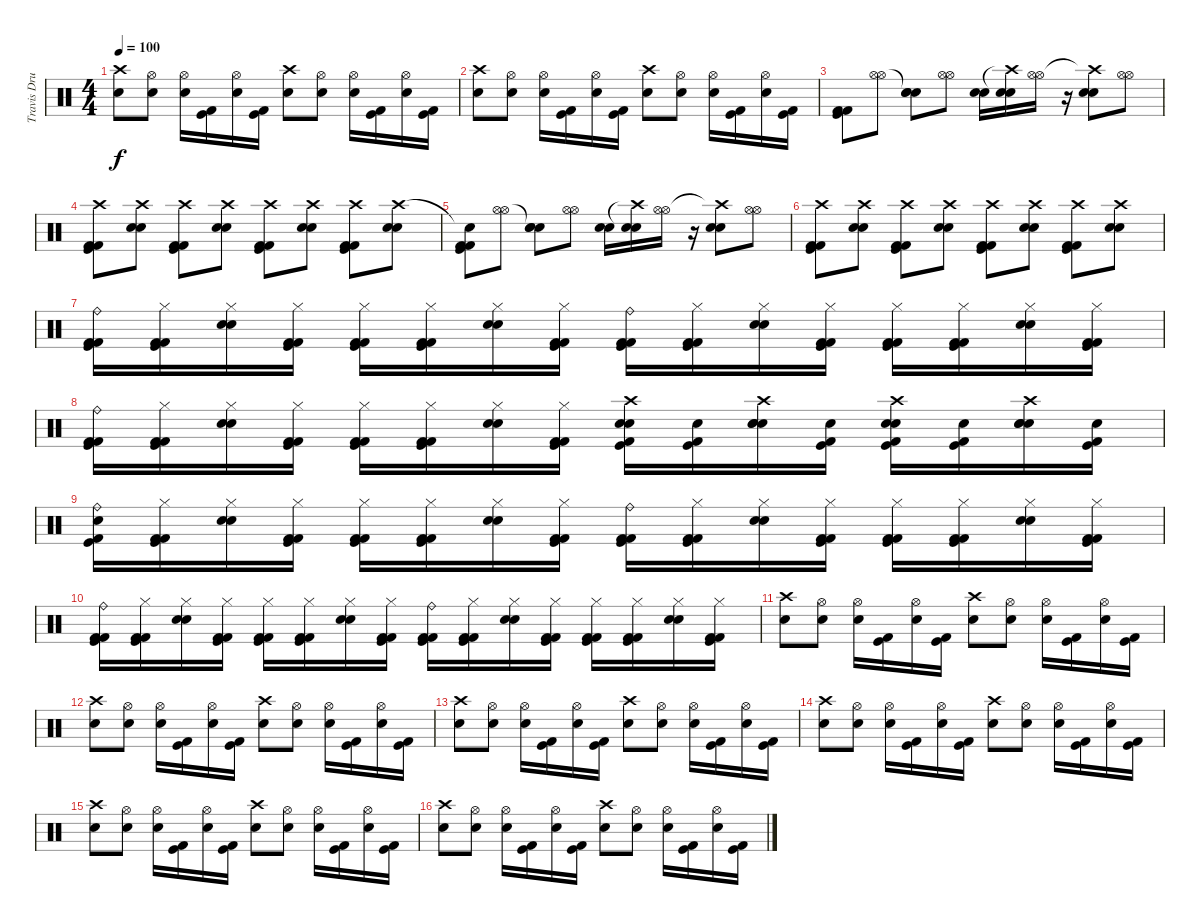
\track ("Travis Drums" "Travis Dru") {instrument percussion}
\staff {score}
\articulation defaults
\ts (4 4)
\tempo 100
\clef neutral
\ks c
("Crash high (hit)" "Electric Snare (hit)").8{dy f} ("Hi-Hat (open)" "Electric Snare (hit)").8 ("Hi-Hat (open)" "Electric Snare (hit)").16 ("Kick (hit)" "Kick (hit) 2").16 ("Hi-Hat (open)" "Electric Snare (hit)").16 ("Kick (hit)" "Kick (hit) 2").16 ("Crash high (hit)" "Electric Snare (hit)").8 ("Hi-Hat (open)" "Electric Snare (hit)").8 ("Hi-Hat (open)" "Electric Snare (hit)").16 ("Kick (hit)" "Kick (hit) 2").16 ("Hi-Hat (open)" "Electric Snare (hit)").16 ("Kick (hit)" "Kick (hit) 2").16 |
("Crash high (hit)" "Electric Snare (hit)").8 ("Hi-Hat (open)" "Electric Snare (hit)").8 ("Hi-Hat (open)" "Electric Snare (hit)").16 ("Kick (hit)" "Kick (hit) 2").16 ("Hi-Hat (open)" "Electric Snare (hit)").16 ("Kick (hit)" "Kick (hit) 2").16 ("Crash high (hit)" "Electric Snare (hit)").8 ("Hi-Hat (open)" "Electric Snare (hit)").8 ("Hi-Hat (open)" "Electric Snare (hit)").16 ("Kick (hit)" "Kick (hit) 2").16 ("Hi-Hat (open)" "Electric Snare (hit)").16 ("Kick (hit)" "Kick (hit) 2").16 |
("Kick (hit) 2" "Kick (hit)" "Kick (hit) 2").8 ("Hi-Hat (open)" "Hi-Hat (open)").8 ("Snare (hit)"{t} "Snare (hit) 2" "Electric Snare (hit)").8 ("Hi-Hat (open)" "Hi-Hat (open)").8 ("Snare (hit) 2" "Electric Snare (hit)").16 ("Crash high (hit)"{t} "Snare (hit) 2" "Electric Snare (hit)").16 ("Hi-Hat (open)" "Hi-Hat (open)").16 r.16 ("Crash high (hit)"{t} "Snare (hit) 2" "Electric Snare (hit)").8 ("Hi-Hat (open)" "Hi-Hat (open)").8 |
("Crash high (hit)" "Kick (hit) 2" "Kick (hit)" "Kick (hit) 2").8 ("Crash high (hit)" "Snare (hit) 2" "Electric Snare (hit)").8 ("Crash high (hit)" "Kick (hit) 2" "Kick (hit)" "Kick (hit) 2").8 ("Crash high (hit)" "Snare (hit) 2" "Electric Snare (hit)").8 ("Crash high (hit)" "Kick (hit) 2" "Kick (hit)" "Kick (hit) 2").8 ("Crash high (hit)" "Snare (hit) 2" "Electric Snare (hit)").8 ("Crash high (hit)" "Kick (hit) 2" "Kick (hit)" "Kick (hit) 2").8 ("Crash high (hit)" "Snare (hit) 2" "Electric Snare (hit)").8 |
("Snare (hit)"{t} "Kick (hit) 2" "Kick (hit)" "Kick (hit) 2").8 ("Hi-Hat (open)" "Hi-Hat (open)").8 ("Snare (hit)"{t} "Snare (hit) 2" "Electric Snare (hit)").8 ("Hi-Hat (open)" "Hi-Hat (open)").8 ("Snare (hit) 2" "Electric Snare (hit)").16 ("Crash high (hit)"{t} "Snare (hit) 2" "Electric Snare (hit)").16 ("Hi-Hat (open)" "Hi-Hat (open)").16 r.16 ("Crash high (hit)"{t} "Snare (hit) 2" "Electric Snare (hit)").8 ("Hi-Hat (open)" "Hi-Hat (open)").8 |
("Crash high (hit)" "Kick (hit) 2" "Kick (hit)" "Kick (hit) 2").8 ("Crash high (hit)" "Snare (hit) 2" "Electric Snare (hit)").8 ("Crash high (hit)" "Kick (hit) 2" "Kick (hit)" "Kick (hit) 2").8 ("Crash high (hit)" "Snare (hit) 2" "Electric Snare (hit)").8 ("Crash high (hit)" "Kick (hit) 2" "Kick (hit)" "Kick (hit) 2").8 ("Crash high (hit)" "Snare (hit) 2" "Electric Snare (hit)").8 ("Crash high (hit)" "Kick (hit) 2" "Kick (hit)" "Kick (hit) 2").8 ("Crash high (hit)" "Snare (hit) 2" "Electric Snare (hit)").8 |
("Ride (bell)" "Kick (hit) 2" "Kick (hit)" "Kick (hit) 2").16 ("Hi-Hat (closed)" "Kick (hit) 2" "Kick (hit)" "Kick (hit) 2").16 ("Hi-Hat (closed)" "Electric Snare (hit)" "Snare (hit) 2").16 ("Hi-Hat (closed)" "Kick (hit) 2" "Kick (hit)" "Kick (hit) 2").16 ("Hi-Hat (closed)" "Kick (hit) 2" "Kick (hit)" "Kick (hit) 2").16 ("Hi-Hat (closed)" "Kick (hit) 2" "Kick (hit)" "Kick (hit) 2").16 ("Hi-Hat (closed)" "Electric Snare (hit)" "Snare (hit) 2").16 ("Hi-Hat (closed)" "Kick (hit) 2" "Kick (hit)" "Kick (hit) 2").16 ("Ride (bell)" "Kick (hit) 2" "Kick (hit)" "Kick (hit) 2").16 ("Hi-Hat (closed)" "Kick (hit) 2" "Kick (hit)" "Kick (hit) 2").16 ("Hi-Hat (closed)" "Electric Snare (hit)" "Snare (hit) 2").16 ("Hi-Hat (closed)" "Kick (hit) 2" "Kick (hit)" "Kick (hit) 2").16 ("Hi-Hat (closed)" "Kick (hit) 2" "Kick (hit)" "Kick (hit) 2").16 ("Hi-Hat (closed)" "Kick (hit) 2" "Kick (hit)" "Kick (hit) 2").16 ("Hi-Hat (closed)" "Electric Snare (hit)" "Snare (hit) 2").16 ("Hi-Hat (closed)" "Kick (hit) 2" "Kick (hit)" "Kick (hit) 2").16 |
("Ride (bell)" "Kick (hit) 2" "Kick (hit)" "Kick (hit) 2").16 ("Hi-Hat (closed)" "Kick (hit) 2" "Kick (hit)" "Kick (hit) 2").16 ("Hi-Hat (closed)" "Electric Snare (hit)" "Snare (hit) 2").16 ("Hi-Hat (closed)" "Kick (hit) 2" "Kick (hit)" "Kick (hit) 2").16 ("Hi-Hat (closed)" "Kick (hit) 2" "Kick (hit)" "Kick (hit) 2").16 ("Hi-Hat (closed)" "Kick (hit) 2" "Kick (hit)" "Kick (hit) 2").16 ("Hi-Hat (closed)" "Electric Snare (hit)" "Snare (hit) 2").16 ("Hi-Hat (closed)" "Kick (hit) 2" "Kick (hit)" "Kick (hit) 2").16 ("Crash high (hit)" "Snare (hit) 2" "Electric Snare (hit)" "Kick (hit)" "Kick (hit) 2").16 ("Electric Snare (hit)" "Kick (hit)" "Kick (hit) 2").16 ("Crash high (hit)" "Snare (hit) 2" "Electric Snare (hit)" "Snare (hit) 2").16 ("Electric Snare (hit)" "Kick (hit)" "Kick (hit) 2").16 ("Crash high (hit)" "Snare (hit) 2" "Electric Snare (hit)" "Kick (hit)" "Kick (hit) 2").16 ("Electric Snare (hit)" "Kick (hit)" "Kick (hit) 2").16 ("Crash high (hit)" "Snare (hit) 2" "Electric Snare (hit)" "Snare (hit) 2").16 ("Electric Snare (hit)" "Kick (hit)" "Kick (hit) 2").16 |
("Ride (bell)" "Electric Snare (hit)" "Kick (hit)" "Kick (hit) 2").16 ("Hi-Hat (closed)" "Kick (hit) 2" "Kick (hit)" "Kick (hit) 2").16 ("Hi-Hat (closed)" "Electric Snare (hit)" "Snare (hit) 2").16 ("Hi-Hat (closed)" "Kick (hit) 2" "Kick (hit)" "Kick (hit) 2").16 ("Hi-Hat (closed)" "Kick (hit) 2" "Kick (hit)" "Kick (hit) 2").16 ("Hi-Hat (closed)" "Kick (hit) 2" "Kick (hit)" "Kick (hit) 2").16 ("Hi-Hat (closed)" "Electric Snare (hit)" "Snare (hit) 2").16 ("Hi-Hat (closed)" "Kick (hit) 2" "Kick (hit)" "Kick (hit) 2").16 ("Ride (bell)" "Kick (hit) 2" "Kick (hit)" "Kick (hit) 2").16 ("Hi-Hat (closed)" "Kick (hit) 2" "Kick (hit)" "Kick (hit) 2").16 ("Hi-Hat (closed)" "Electric Snare (hit)" "Snare (hit) 2").16 ("Hi-Hat (closed)" "Kick (hit) 2" "Kick (hit)" "Kick (hit) 2").16 ("Hi-Hat (closed)" "Kick (hit) 2" "Kick (hit)" "Kick (hit) 2").16 ("Hi-Hat (closed)" "Kick (hit) 2" "Kick (hit)" "Kick (hit) 2").16 ("Hi-Hat (closed)" "Electric Snare (hit)" "Snare (hit) 2").16 ("Hi-Hat (closed)" "Kick (hit) 2" "Kick (hit)" "Kick (hit) 2").16 |
("Ride (bell)" "Kick (hit) 2" "Kick (hit)" "Kick (hit) 2").16 ("Hi-Hat (closed)" "Kick (hit) 2" "Kick (hit)" "Kick (hit) 2").16 ("Hi-Hat (closed)" "Electric Snare (hit)" "Snare (hit) 2").16 ("Hi-Hat (closed)" "Kick (hit) 2" "Kick (hit)" "Kick (hit) 2").16 ("Hi-Hat (closed)" "Kick (hit) 2" "Kick (hit)" "Kick (hit) 2").16 ("Hi-Hat (closed)" "Kick (hit) 2" "Kick (hit)" "Kick (hit) 2").16 ("Hi-Hat (closed)" "Electric Snare (hit)" "Snare (hit) 2").16 ("Hi-Hat (closed)" "Kick (hit) 2" "Kick (hit)" "Kick (hit) 2").16 ("Ride (bell)" "Kick (hit) 2" "Kick (hit)" "Kick (hit) 2").16 ("Hi-Hat (closed)" "Kick (hit) 2" "Kick (hit)" "Kick (hit) 2").16 ("Hi-Hat (closed)" "Electric Snare (hit)" "Snare (hit) 2").16 ("Hi-Hat (closed)" "Kick (hit) 2" "Kick (hit)" "Kick (hit) 2").16 ("Hi-Hat (closed)" "Kick (hit) 2" "Kick (hit)" "Kick (hit) 2").16 ("Hi-Hat (closed)" "Kick (hit) 2" "Kick (hit)" "Kick (hit) 2").16 ("Hi-Hat (closed)" "Electric Snare (hit)" "Snare (hit) 2").16 ("Hi-Hat (closed)" "Kick (hit) 2" "Kick (hit)" "Kick (hit) 2").16 |
("Crash high (hit)" "Electric Snare (hit)").8 ("Hi-Hat (open)" "Electric Snare (hit)").8 ("Hi-Hat (open)" "Electric Snare (hit)").16 ("Kick (hit)" "Kick (hit) 2").16 ("Hi-Hat (open)" "Electric Snare (hit)").16 ("Kick (hit)" "Kick (hit) 2").16 ("Crash high (hit)" "Electric Snare (hit)").8 ("Hi-Hat (open)" "Electric Snare (hit)").8 ("Hi-Hat (open)" "Electric Snare (hit)").16 ("Kick (hit)" "Kick (hit) 2").16 ("Hi-Hat (open)" "Electric Snare (hit)").16 ("Kick (hit)" "Kick (hit) 2").16 |
("Crash high (hit)" "Electric Snare (hit)").8 ("Hi-Hat (open)" "Electric Snare (hit)").8 ("Hi-Hat (open)" "Electric Snare (hit)").16 ("Kick (hit)" "Kick (hit) 2").16 ("Hi-Hat (open)" "Electric Snare (hit)").16 ("Kick (hit)" "Kick (hit) 2").16 ("Crash high (hit)" "Electric Snare (hit)").8 ("Hi-Hat (open)" "Electric Snare (hit)").8 ("Hi-Hat (open)" "Electric Snare (hit)").16 ("Kick (hit)" "Kick (hit) 2").16 ("Hi-Hat (open)" "Electric Snare (hit)").16 ("Kick (hit)" "Kick (hit) 2").16 |
("Crash high (hit)" "Electric Snare (hit)").8 ("Hi-Hat (open)" "Electric Snare (hit)").8 ("Hi-Hat (open)" "Electric Snare (hit)").16 ("Kick (hit)" "Kick (hit) 2").16 ("Hi-Hat (open)" "Electric Snare (hit)").16 ("Kick (hit)" "Kick (hit) 2").16 ("Crash high (hit)" "Electric Snare (hit)").8 ("Hi-Hat (open)" "Electric Snare (hit)").8 ("Hi-Hat (open)" "Electric Snare (hit)").16 ("Kick (hit)" "Kick (hit) 2").16 ("Hi-Hat (open)" "Electric Snare (hit)").16 ("Kick (hit)" "Kick (hit) 2").16 |
("Crash high (hit)" "Electric Snare (hit)").8 ("Hi-Hat (open)" "Electric Snare (hit)").8 ("Hi-Hat (open)" "Electric Snare (hit)").16 ("Kick (hit)" "Kick (hit) 2").16 ("Hi-Hat (open)" "Electric Snare (hit)").16 ("Kick (hit)" "Kick (hit) 2").16 ("Crash high (hit)" "Electric Snare (hit)").8 ("Hi-Hat (open)" "Electric Snare (hit)").8 ("Hi-Hat (open)" "Electric Snare (hit)").16 ("Kick (hit)" "Kick (hit) 2").16 ("Hi-Hat (open)" "Electric Snare (hit)").16 ("Kick (hit)" "Kick (hit) 2").16 |
("Crash high (hit)" "Electric Snare (hit)").8 ("Hi-Hat (open)" "Electric Snare (hit)").8 ("Hi-Hat (open)" "Electric Snare (hit)").16 ("Kick (hit)" "Kick (hit) 2").16 ("Hi-Hat (open)" "Electric Snare (hit)").16 ("Kick (hit)" "Kick (hit) 2").16 ("Crash high (hit)" "Electric Snare (hit)").8 ("Hi-Hat (open)" "Electric Snare (hit)").8 ("Hi-Hat (open)" "Electric Snare (hit)").16 ("Kick (hit)" "Kick (hit) 2").16 ("Hi-Hat (open)" "Electric Snare (hit)").16 ("Kick (hit)" "Kick (hit) 2").16 |
("Crash high (hit)" "Electric Snare (hit)").8 ("Hi-Hat (open)" "Electric Snare (hit)").8 ("Hi-Hat (open)" "Electric Snare (hit)").16 ("Kick (hit)" "Kick (hit) 2").16 ("Hi-Hat (open)" "Electric Snare (hit)").16 ("Kick (hit)" "Kick (hit) 2").16 ("Crash high (hit)" "Electric Snare (hit)").8 ("Hi-Hat (open)" "Electric Snare (hit)").8 ("Hi-Hat (open)" "Electric Snare (hit)").16 ("Kick (hit)" "Kick (hit) 2").16 ("Hi-Hat (open)" "Electric Snare (hit)").16 ("Kick (hit)" "Kick (hit) 2").16
